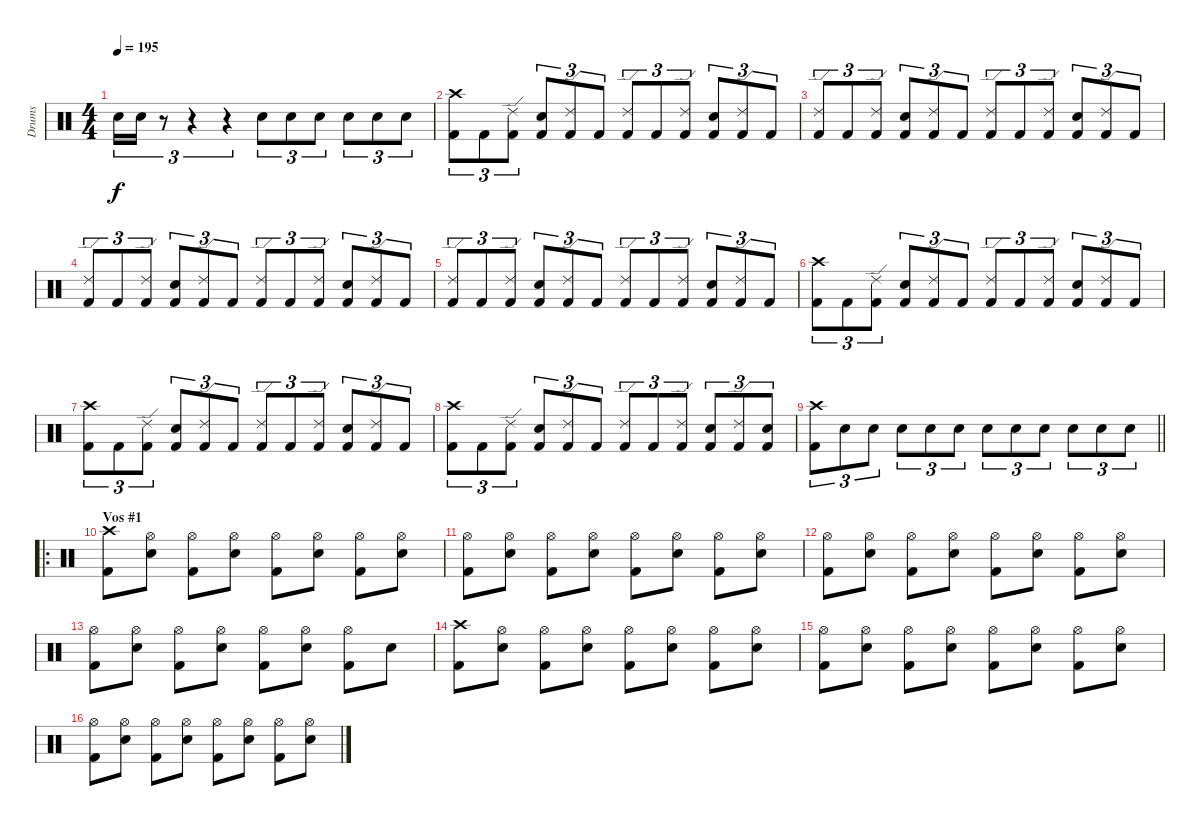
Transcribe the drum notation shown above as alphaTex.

\track ("Drums" "Drums") {instrument percussion}
\staff {score}
\articulation defaults
\ts (4 4)
\tempo 195
\clef neutral
\ks c "Snare (hit) 2".16{tu (3 2) dy f} "Snare (hit) 2".16{tu (3 2)}
r.8{tu (3 2) volume 9} r.4{tu (3 2)} r.4{tu (3 2)} "Snare (hit) 2".8{tu (3 2) volume 13} "Snare (hit) 2".8{tu (3 2)} "Snare (hit) 2".8{tu (3 2)} "Snare (hit) 2".8{tu (3 2)} "Snare (hit) 2".8{tu (3 2)} "Snare (hit) 2".8{tu (3 2)} |
("Crash high (hit)" "Kick (hit) 2").8{tu (3 2)} "Kick (hit) 2".8{tu (3 2)} ("Ride (edge) 2" "Kick (hit) 2").8{tu (3 2)} ("Snare (hit) 2" "Kick (hit) 2").8{tu (3 2)} ("Ride (edge) 2" "Kick (hit) 2").8{tu (3 2)} "Kick (hit) 2".8{tu (3 2)} ("Ride (edge) 2" "Kick (hit) 2").8{tu (3 2)} "Kick (hit) 2".8{tu (3 2)} ("Ride (edge) 2" "Kick (hit) 2").8{tu (3 2)} ("Snare (hit) 2" "Kick (hit) 2").8{tu (3 2)} ("Ride (edge) 2" "Kick (hit) 2").8{tu (3 2)} "Kick (hit) 2".8{tu (3 2)} |
("Ride (edge) 2" "Kick (hit) 2").8{tu (3 2)} "Kick (hit) 2".8{tu (3 2)} ("Ride (edge) 2" "Kick (hit) 2").8{tu (3 2)} ("Snare (hit) 2" "Kick (hit) 2").8{tu (3 2)} ("Ride (edge) 2" "Kick (hit) 2").8{tu (3 2)} "Kick (hit) 2".8{tu (3 2)} ("Ride (edge) 2" "Kick (hit) 2").8{tu (3 2)} "Kick (hit) 2".8{tu (3 2)} ("Ride (edge) 2" "Kick (hit) 2").8{tu (3 2)} ("Snare (hit) 2" "Kick (hit) 2").8{tu (3 2)} ("Ride (edge) 2" "Kick (hit) 2").8{tu (3 2)} "Kick (hit) 2".8{tu (3 2)} |
("Ride (edge) 2" "Kick (hit) 2").8{tu (3 2)} "Kick (hit) 2".8{tu (3 2)} ("Ride (edge) 2" "Kick (hit) 2").8{tu (3 2)} ("Snare (hit) 2" "Kick (hit) 2").8{tu (3 2)} ("Ride (edge) 2" "Kick (hit) 2").8{tu (3 2)} "Kick (hit) 2".8{tu (3 2)} ("Ride (edge) 2" "Kick (hit) 2").8{tu (3 2)} "Kick (hit) 2".8{tu (3 2)} ("Ride (edge) 2" "Kick (hit) 2").8{tu (3 2)} ("Snare (hit) 2" "Kick (hit) 2").8{tu (3 2)} ("Ride (edge) 2" "Kick (hit) 2").8{tu (3 2)} "Kick (hit) 2".8{tu (3 2)} |
("Ride (edge) 2" "Kick (hit) 2").8{tu (3 2)} "Kick (hit) 2".8{tu (3 2)} ("Ride (edge) 2" "Kick (hit) 2").8{tu (3 2)} ("Snare (hit) 2" "Kick (hit) 2").8{tu (3 2)} ("Ride (edge) 2" "Kick (hit) 2").8{tu (3 2)} "Kick (hit) 2".8{tu (3 2)} ("Ride (edge) 2" "Kick (hit) 2").8{tu (3 2)} "Kick (hit) 2".8{tu (3 2)} ("Ride (edge) 2" "Kick (hit) 2").8{tu (3 2)} ("Snare (hit) 2" "Kick (hit) 2").8{tu (3 2)} ("Ride (edge) 2" "Kick (hit) 2").8{tu (3 2)} "Kick (hit) 2".8{tu (3 2)} |
("Crash high (hit)" "Kick (hit) 2").8{tu (3 2)} "Kick (hit) 2".8{tu (3 2)} ("Ride (edge) 2" "Kick (hit) 2").8{tu (3 2)} ("Snare (hit) 2" "Kick (hit) 2").8{tu (3 2)} ("Ride (edge) 2" "Kick (hit) 2").8{tu (3 2)} "Kick (hit) 2".8{tu (3 2)} ("Ride (edge) 2" "Kick (hit) 2").8{tu (3 2)} "Kick (hit) 2".8{tu (3 2)} ("Ride (edge) 2" "Kick (hit) 2").8{tu (3 2)} ("Snare (hit) 2" "Kick (hit) 2").8{tu (3 2)} ("Ride (edge) 2" "Kick (hit) 2").8{tu (3 2)} "Kick (hit) 2".8{tu (3 2)} |
("Crash high (hit)" "Kick (hit) 2").8{tu (3 2)} "Kick (hit) 2".8{tu (3 2)} ("Ride (edge) 2" "Kick (hit) 2").8{tu (3 2)} ("Snare (hit) 2" "Kick (hit) 2").8{tu (3 2)} ("Ride (edge) 2" "Kick (hit) 2").8{tu (3 2)} "Kick (hit) 2".8{tu (3 2)} ("Ride (edge) 2" "Kick (hit) 2").8{tu (3 2)} "Kick (hit) 2".8{tu (3 2)} ("Ride (edge) 2" "Kick (hit) 2").8{tu (3 2)} ("Snare (hit) 2" "Kick (hit) 2").8{tu (3 2)} ("Ride (edge) 2" "Kick (hit) 2").8{tu (3 2)} "Kick (hit) 2".8{tu (3 2)} |
("Crash high (hit)" "Kick (hit) 2").8{tu (3 2)} "Kick (hit) 2".8{tu (3 2)} ("Ride (edge) 2" "Kick (hit) 2").8{tu (3 2)} ("Snare (hit) 2" "Kick (hit) 2").8{tu (3 2)} ("Ride (edge) 2" "Kick (hit) 2").8{tu (3 2)} "Kick (hit) 2".8{tu (3 2)} ("Ride (edge) 2" "Kick (hit) 2").8{tu (3 2)} "Kick (hit) 2".8{tu (3 2)} ("Ride (edge) 2" "Kick (hit) 2").8{tu (3 2)} ("Snare (hit) 2" "Kick (hit) 2").8{tu (3 2)} ("Ride (edge) 2" "Kick (hit) 2").8{tu (3 2)} ("Snare (hit) 2" "Kick (hit) 2").8{tu (3 2)} |
\barLineRight lightlight
("Crash high (hit)" "Kick (hit) 2").8{tu (3 2)} "Snare (hit) 2".8{tu (3 2) volume 10} "Snare (hit) 2".8{tu (3 2) volume 13} "Snare (hit) 2".8{tu (3 2)} "Snare (hit) 2".8{tu (3 2)} "Snare (hit) 2".8{tu (3 2)} "Snare (hit) 2".8{tu (3 2)} "Snare (hit) 2".8{tu (3 2)} "Snare (hit) 2".8{tu (3 2)} "Snare (hit) 2".8{tu (3 2)} "Snare (hit) 2".8{tu (3 2)} "Snare (hit) 2".8{tu (3 2)} |
\ro
\section ("" "Vos #1")
("Crash high (hit)" "Kick (hit) 2").8 ("Hi-Hat (open)" "Snare (hit) 2").8 ("Hi-Hat (open)" "Kick (hit) 2").8 ("Hi-Hat (open)" "Snare (hit) 2").8 ("Hi-Hat (open)" "Kick (hit) 2").8 ("Hi-Hat (open)" "Snare (hit) 2").8 ("Hi-Hat (open)" "Kick (hit) 2").8 ("Hi-Hat (open)" "Snare (hit) 2").8 |
("Hi-Hat (open)" "Kick (hit) 2").8 ("Hi-Hat (open)" "Snare (hit) 2").8 ("Hi-Hat (open)" "Kick (hit) 2").8 ("Hi-Hat (open)" "Snare (hit) 2").8 ("Hi-Hat (open)" "Kick (hit) 2").8 ("Hi-Hat (open)" "Snare (hit) 2").8 ("Hi-Hat (open)" "Kick (hit) 2").8 ("Hi-Hat (open)" "Snare (hit) 2").8 |
("Hi-Hat (open)" "Kick (hit) 2").8 ("Hi-Hat (open)" "Snare (hit) 2").8 ("Hi-Hat (open)" "Kick (hit) 2").8 ("Hi-Hat (open)" "Snare (hit) 2").8 ("Hi-Hat (open)" "Kick (hit) 2").8 ("Hi-Hat (open)" "Snare (hit) 2").8 ("Hi-Hat (open)" "Kick (hit) 2").8 ("Hi-Hat (open)" "Snare (hit) 2").8 |
("Hi-Hat (open)" "Kick (hit) 2").8 ("Hi-Hat (open)" "Snare (hit) 2").8 ("Hi-Hat (open)" "Kick (hit) 2").8 ("Hi-Hat (open)" "Snare (hit) 2").8 ("Hi-Hat (open)" "Kick (hit) 2").8 ("Hi-Hat (open)" "Snare (hit) 2").8 ("Hi-Hat (open)" "Kick (hit) 2").8 "Snare (hit) 2".8 |
("Crash high (hit)" "Kick (hit) 2").8 ("Hi-Hat (open)" "Snare (hit) 2").8 ("Hi-Hat (open)" "Kick (hit) 2").8 ("Hi-Hat (open)" "Snare (hit) 2").8 ("Hi-Hat (open)" "Kick (hit) 2").8 ("Hi-Hat (open)" "Snare (hit) 2").8 ("Hi-Hat (open)" "Kick (hit) 2").8 ("Hi-Hat (open)" "Snare (hit) 2").8 |
("Hi-Hat (open)" "Kick (hit) 2").8 ("Hi-Hat (open)" "Snare (hit) 2").8 ("Hi-Hat (open)" "Kick (hit) 2").8 ("Hi-Hat (open)" "Snare (hit) 2").8 ("Hi-Hat (open)" "Kick (hit) 2").8 ("Hi-Hat (open)" "Snare (hit) 2").8 ("Hi-Hat (open)" "Kick (hit) 2").8 ("Hi-Hat (open)" "Snare (hit) 2").8 |
("Hi-Hat (open)" "Kick (hit) 2").8 ("Hi-Hat (open)" "Snare (hit) 2").8 ("Hi-Hat (open)" "Kick (hit) 2").8 ("Hi-Hat (open)" "Snare (hit) 2").8 ("Hi-Hat (open)" "Kick (hit) 2").8 ("Hi-Hat (open)" "Snare (hit) 2").8 ("Hi-Hat (open)" "Kick (hit) 2").8 ("Hi-Hat (open)" "Snare (hit) 2").8
